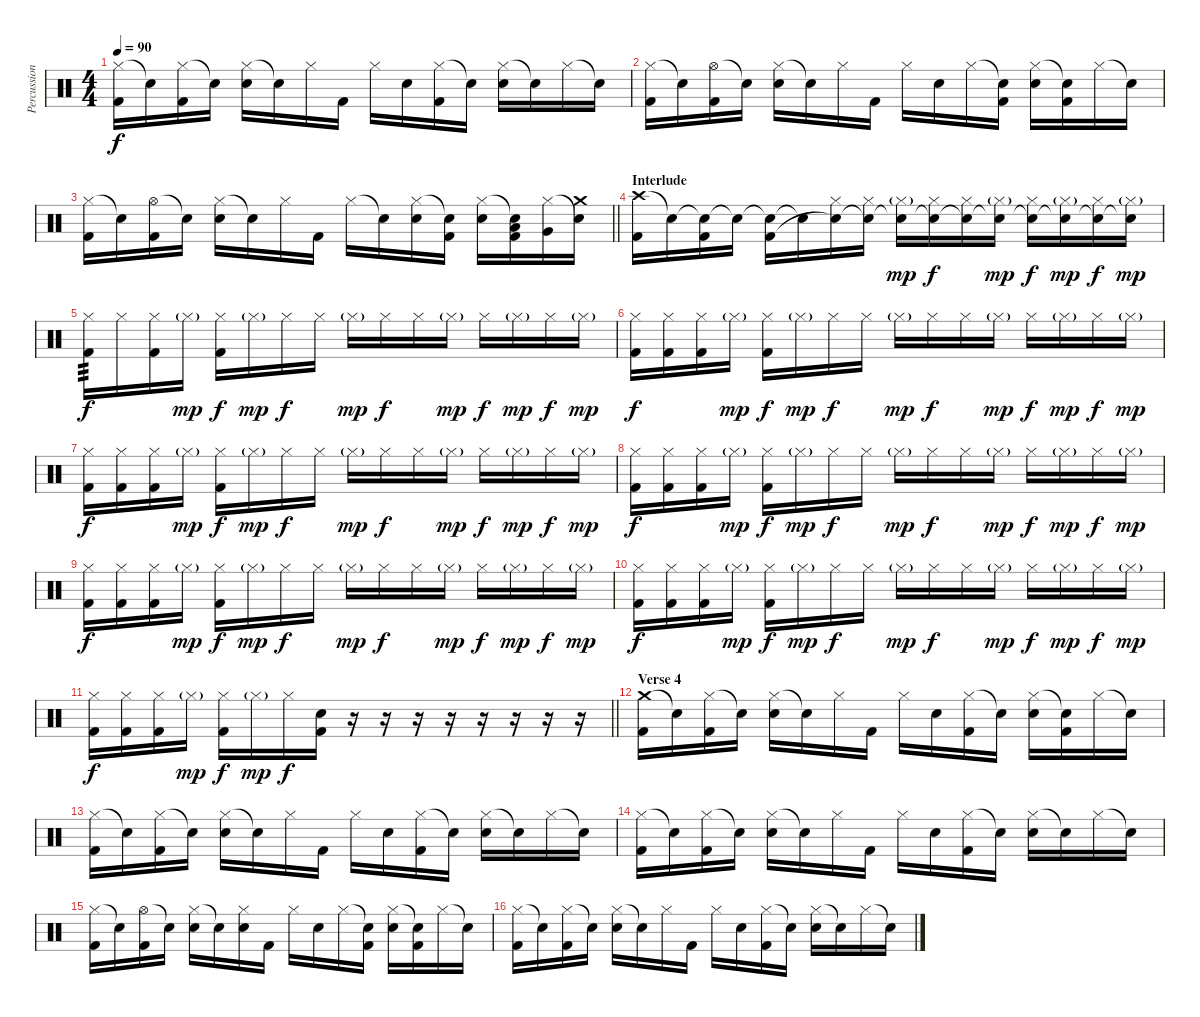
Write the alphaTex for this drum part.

\track ("Percussion" "Percussion") {instrument percussion}
\staff {score}
\articulation defaults
\ts (4 4)
\tempo 90
\clef neutral
\ks c
("Hi-Hat (closed)" "Kick (hit) 2").16{dy f} "Snare (hit)"{t}.16 ("Hi-Hat (closed)" "Kick (hit) 2").16 "Snare (hit)"{t}.16 ("Hi-Hat (closed)" "Snare (hit) 2").16 "Snare (hit)"{t}.16 "Hi-Hat (closed)".16 "Kick (hit) 2".16 "Hi-Hat (closed)".16 "Snare (hit) 2".16 ("Hi-Hat (closed)" "Kick (hit) 2").16 "Snare (hit)"{t}.16 ("Hi-Hat (closed)" "Snare (hit) 2").16 "Snare (hit)"{t}.16 "Hi-Hat (closed)".16 "Snare (hit)"{t}.16 |
("Hi-Hat (closed)" "Kick (hit) 2").16 "Snare (hit)"{t}.16 ("Hi-Hat (open)" "Kick (hit) 2").16 "Snare (hit)"{t}.16 ("Hi-Hat (closed)" "Snare (hit) 2").16 "Snare (hit)"{t}.16 "Hi-Hat (closed)".16 "Kick (hit) 2".16 "Hi-Hat (closed)".16 "Snare (hit) 2".16 "Hi-Hat (closed)".16 ("Snare (hit)"{t} "Kick (hit) 2").16 ("Hi-Hat (closed)" "Snare (hit) 2").16 ("Snare (hit)"{t} "Kick (hit) 2").16 "Hi-Hat (closed)".16 "Snare (hit)"{t}.16 |
\barLineRight lightlight
("Hi-Hat (closed)" "Kick (hit) 2").16 "Snare (hit)"{t}.16 ("Hi-Hat (open)" "Kick (hit) 2").16 "Snare (hit)"{t}.16 ("Hi-Hat (closed)" "Snare (hit) 2").16 "Snare (hit)"{t}.16 "Hi-Hat (closed)".16 "Kick (hit) 2".16 "Hi-Hat (closed)".16 "Snare (hit)"{t}.16 ("Hi-Hat (closed)" "Snare (hit) 2").16 ("Snare (hit)"{t} "Kick (hit) 2").16 ("Hi-Hat (closed)" "Snare (hit) 2").16 ("Snare (hit)"{t} "Low Tom (hit)" "Kick (hit) 2").16 ("Hi-Hat (closed)" "Very Low Tom (hit)").16 ("Snare (hit)"{t} "Crash medium (hit)").16 |
\section ("" "Interlude")
("Crash high (hit)" "Kick (hit) 2").16 "Snare (hit)"{t}.16 ("Snare (hit)"{t} "Kick (hit) 2").16 "Snare (hit)"{t}.16 ("Snare (hit)"{t} "Kick (hit) 2").16 "Snare (hit)"{t}.16 ("Hi-Hat (closed)" "Snare (hit)"{t}).16 ("Hi-Hat (closed)" "Snare (hit)"{t}).16 ("Hi-Hat (closed)"{g} "Snare (hit)"{t}).16{dy mp} ("Hi-Hat (closed)" "Snare (hit)"{t}).16{dy f} ("Hi-Hat (closed)" "Snare (hit)"{t}).16 ("Hi-Hat (closed)"{g} "Snare (hit)"{t}).16{dy mp} ("Hi-Hat (closed)" "Snare (hit)"{t}).16{dy f} ("Hi-Hat (closed)"{g} "Snare (hit)"{t}).16{dy mp} ("Hi-Hat (closed)" "Snare (hit)"{t}).16{dy f} ("Hi-Hat (closed)"{g} "Snare (hit)"{t}).16{dy mp} |
("Hi-Hat (closed)" "Kick (hit) 2").16{tp 3 dy f} "Hi-Hat (closed)".16 ("Hi-Hat (closed)" "Kick (hit) 2").16 "Hi-Hat (closed)"{g}.16{dy mp} ("Hi-Hat (closed)" "Kick (hit) 2").16{dy f} "Hi-Hat (closed)"{g}.16{dy mp} "Hi-Hat (closed)".16{dy f} "Hi-Hat (closed)".16 "Hi-Hat (closed)"{g}.16{dy mp} "Hi-Hat (closed)".16{dy f} "Hi-Hat (closed)".16 "Hi-Hat (closed)"{g}.16{dy mp} "Hi-Hat (closed)".16{dy f} "Hi-Hat (closed)"{g}.16{dy mp} "Hi-Hat (closed)".16{dy f} "Hi-Hat (closed)"{g}.16{dy mp} |
("Hi-Hat (closed)" "Kick (hit) 2").16{dy f} ("Hi-Hat (closed)" "Kick (hit) 2").16 ("Hi-Hat (closed)" "Kick (hit) 2").16 "Hi-Hat (closed)"{g}.16{dy mp} ("Hi-Hat (closed)" "Kick (hit) 2").16{dy f} "Hi-Hat (closed)"{g}.16{dy mp} "Hi-Hat (closed)".16{dy f} "Hi-Hat (closed)".16 "Hi-Hat (closed)"{g}.16{dy mp} "Hi-Hat (closed)".16{dy f} "Hi-Hat (closed)".16 "Hi-Hat (closed)"{g}.16{dy mp} "Hi-Hat (closed)".16{dy f} "Hi-Hat (closed)"{g}.16{dy mp} "Hi-Hat (closed)".16{dy f} "Hi-Hat (closed)"{g}.16{dy mp} |
("Hi-Hat (closed)" "Kick (hit) 2").16{dy f} ("Hi-Hat (closed)" "Kick (hit) 2").16 ("Hi-Hat (closed)" "Kick (hit) 2").16 "Hi-Hat (closed)"{g}.16{dy mp} ("Hi-Hat (closed)" "Kick (hit) 2").16{dy f} "Hi-Hat (closed)"{g}.16{dy mp} "Hi-Hat (closed)".16{dy f} "Hi-Hat (closed)".16 "Hi-Hat (closed)"{g}.16{dy mp} "Hi-Hat (closed)".16{dy f} "Hi-Hat (closed)".16 "Hi-Hat (closed)"{g}.16{dy mp} "Hi-Hat (closed)".16{dy f} "Hi-Hat (closed)"{g}.16{dy mp} "Hi-Hat (closed)".16{dy f} "Hi-Hat (closed)"{g}.16{dy mp} |
("Hi-Hat (closed)" "Kick (hit) 2").16{dy f} ("Hi-Hat (closed)" "Kick (hit) 2").16 ("Hi-Hat (closed)" "Kick (hit) 2").16 "Hi-Hat (closed)"{g}.16{dy mp} ("Hi-Hat (closed)" "Kick (hit) 2").16{dy f} "Hi-Hat (closed)"{g}.16{dy mp} "Hi-Hat (closed)".16{dy f} "Hi-Hat (closed)".16 "Hi-Hat (closed)"{g}.16{dy mp} "Hi-Hat (closed)".16{dy f} "Hi-Hat (closed)".16 "Hi-Hat (closed)"{g}.16{dy mp} "Hi-Hat (closed)".16{dy f} "Hi-Hat (closed)"{g}.16{dy mp} "Hi-Hat (closed)".16{dy f} "Hi-Hat (closed)"{g}.16{dy mp} |
("Hi-Hat (closed)" "Kick (hit) 2").16{dy f} ("Hi-Hat (closed)" "Kick (hit) 2").16 ("Hi-Hat (closed)" "Kick (hit) 2").16 "Hi-Hat (closed)"{g}.16{dy mp} ("Hi-Hat (closed)" "Kick (hit) 2").16{dy f} "Hi-Hat (closed)"{g}.16{dy mp} "Hi-Hat (closed)".16{dy f} "Hi-Hat (closed)".16 "Hi-Hat (closed)"{g}.16{dy mp} "Hi-Hat (closed)".16{dy f} "Hi-Hat (closed)".16 "Hi-Hat (closed)"{g}.16{dy mp} "Hi-Hat (closed)".16{dy f} "Hi-Hat (closed)"{g}.16{dy mp} "Hi-Hat (closed)".16{dy f} "Hi-Hat (closed)"{g}.16{dy mp} |
("Hi-Hat (closed)" "Kick (hit) 2").16{dy f} ("Hi-Hat (closed)" "Kick (hit) 2").16 ("Hi-Hat (closed)" "Kick (hit) 2").16 "Hi-Hat (closed)"{g}.16{dy mp} ("Hi-Hat (closed)" "Kick (hit) 2").16{dy f} "Hi-Hat (closed)"{g}.16{dy mp} "Hi-Hat (closed)".16{dy f} "Hi-Hat (closed)".16 "Hi-Hat (closed)"{g}.16{dy mp} "Hi-Hat (closed)".16{dy f} "Hi-Hat (closed)".16 "Hi-Hat (closed)"{g}.16{dy mp} "Hi-Hat (closed)".16{dy f} "Hi-Hat (closed)"{g}.16{dy mp} "Hi-Hat (closed)".16{dy f} "Hi-Hat (closed)"{g}.16{dy mp} |
\barLineRight lightlight
("Hi-Hat (closed)" "Kick (hit) 2").16{dy f} ("Hi-Hat (closed)" "Kick (hit) 2").16 ("Hi-Hat (closed)" "Kick (hit) 2").16 "Hi-Hat (closed)"{g}.16{dy mp} ("Hi-Hat (closed)" "Kick (hit) 2").16{dy f} "Hi-Hat (closed)"{g}.16{dy mp} "Hi-Hat (closed)".16{dy f} ("Snare (hit) 2" "Kick (hit) 2").16 r.16 r.16 r.16 r.16 r.16 r.16 r.16 r.16 |
\section ("" "Verse 4")
("Crash medium (hit)" "Kick (hit) 2").16 "Snare (hit)"{t}.16 ("Hi-Hat (closed)" "Kick (hit) 2").16 "Snare (hit)"{t}.16 ("Hi-Hat (closed)" "Snare (hit) 2").16 "Snare (hit)"{t}.16 "Hi-Hat (closed)".16 "Kick (hit) 2".16 "Hi-Hat (closed)".16 "Snare (hit) 2".16 ("Hi-Hat (closed)" "Kick (hit) 2").16 "Snare (hit)"{t}.16 ("Hi-Hat (closed)" "Snare (hit) 2").16 ("Snare (hit)"{t} "Kick (hit) 2").16 "Hi-Hat (closed)".16 "Snare (hit)"{t}.16 |
("Hi-Hat (closed)" "Kick (hit) 2").16 "Snare (hit)"{t}.16 ("Hi-Hat (closed)" "Kick (hit) 2").16 "Snare (hit)"{t}.16 ("Hi-Hat (closed)" "Snare (hit) 2").16 "Snare (hit)"{t}.16 "Hi-Hat (closed)".16 "Kick (hit) 2".16 "Hi-Hat (closed)".16 "Snare (hit) 2".16 ("Hi-Hat (closed)" "Kick (hit) 2").16 "Snare (hit)"{t}.16 ("Hi-Hat (closed)" "Snare (hit) 2").16 "Snare (hit)"{t}.16 "Hi-Hat (closed)".16 "Snare (hit)"{t}.16 |
("Hi-Hat (closed)" "Kick (hit) 2").16 "Snare (hit)"{t}.16 ("Hi-Hat (closed)" "Kick (hit) 2").16 "Snare (hit)"{t}.16 ("Hi-Hat (closed)" "Snare (hit) 2").16 "Snare (hit)"{t}.16 "Hi-Hat (closed)".16 "Kick (hit) 2".16 "Hi-Hat (closed)".16 "Snare (hit) 2".16 ("Hi-Hat (closed)" "Kick (hit) 2").16 "Snare (hit)"{t}.16 ("Hi-Hat (closed)" "Snare (hit) 2").16 "Snare (hit)"{t}.16 "Hi-Hat (closed)".16 "Snare (hit)"{t}.16 |
("Hi-Hat (closed)" "Kick (hit) 2").16 "Snare (hit)"{t}.16 ("Hi-Hat (open)" "Kick (hit) 2").16 "Snare (hit)"{t}.16 ("Hi-Hat (closed)" "Snare (hit) 2").16 "Snare (hit)"{t}.16 ("Hi-Hat (closed)" "Snare (hit) 2").16 "Kick (hit) 2".16 "Hi-Hat (closed)".16 "Snare (hit) 2".16 "Hi-Hat (closed)".16 ("Snare (hit)"{t} "Kick (hit) 2").16 ("Hi-Hat (closed)" "Snare (hit) 2").16 ("Snare (hit)"{t} "Kick (hit) 2").16 "Hi-Hat (closed)".16 "Snare (hit)"{t}.16 |
("Hi-Hat (closed)" "Kick (hit) 2").16 "Snare (hit)"{t}.16 ("Hi-Hat (closed)" "Kick (hit) 2").16 "Snare (hit)"{t}.16 ("Hi-Hat (closed)" "Snare (hit) 2").16 "Snare (hit)"{t}.16 "Hi-Hat (closed)".16 "Kick (hit) 2".16 "Hi-Hat (closed)".16 "Snare (hit) 2".16 ("Hi-Hat (closed)" "Kick (hit) 2").16 "Snare (hit)"{t}.16 ("Hi-Hat (closed)" "Snare (hit) 2").16 "Snare (hit)"{t}.16 "Hi-Hat (closed)".16 "Snare (hit)"{t}.16
